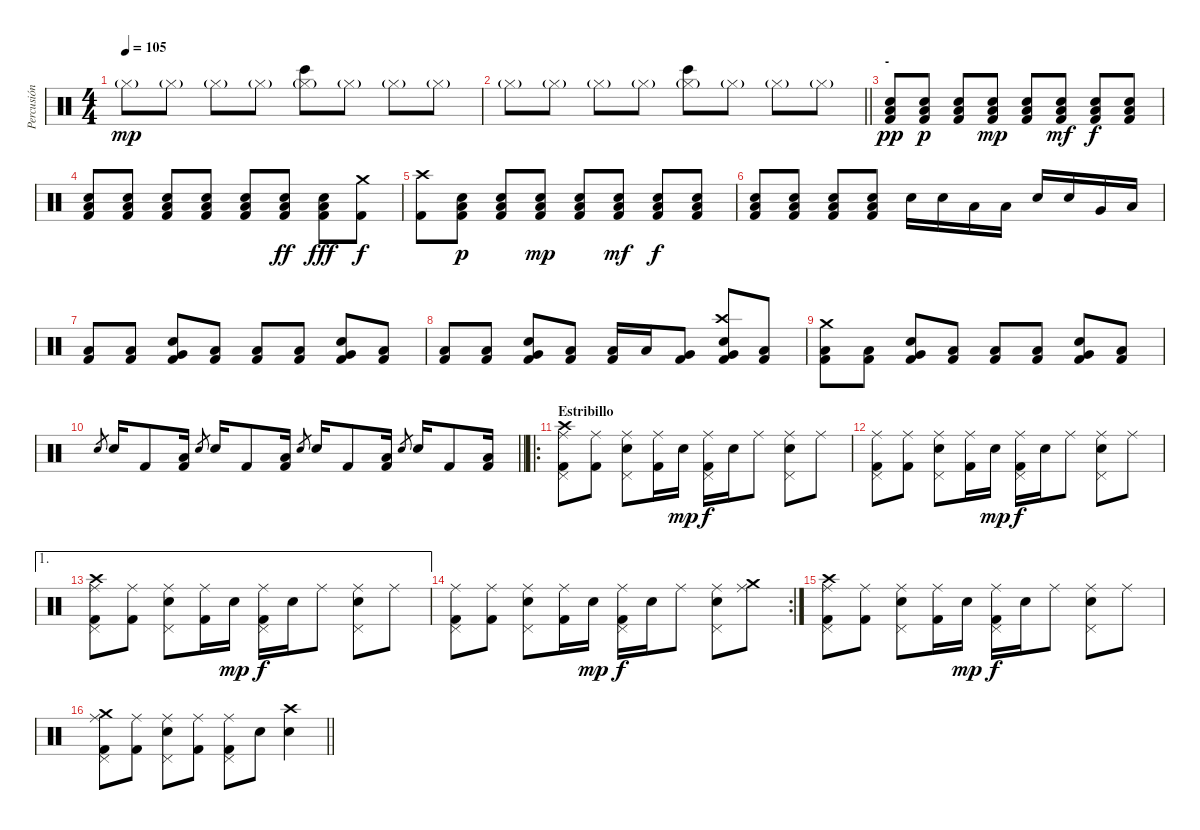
\track ("Percusión" "Percusión") {instrument percussion}
\staff {score}
\articulation defaults
\ts (4 4)
\tempo 105
\clef neutral
\ks c "Hi-Hat (closed)"{g}.8{dy mp} "Hi-Hat (closed)"{g}.8 "Hi-Hat (closed)"{g}.8 "Hi-Hat (closed)"{g}.8
("Hi-Hat (closed)"{g} "Bongo High (hit)").8 "Hi-Hat (closed)"{g}.8 "Hi-Hat (closed)"{g}.8 "Hi-Hat (closed)"{g}.8 |
\barLineRight lightlight "Hi-Hat (closed)"{g}.8 "Hi-Hat (closed)"{g}.8 "Hi-Hat (closed)"{g}.8 "Hi-Hat (closed)"{g}.8
("Hi-Hat (closed)"{g} "Bongo High (hit)").8 "Hi-Hat (closed)"{g}.8 "Hi-Hat (closed)"{g}.8 "Hi-Hat (closed)"{g}.8 |
\section ("" "-")
("Low Floor Tom (hit)" "Electric Snare (hit)" "Kick (hit) 2").8{dy pp} ("Low Floor Tom (hit)" "Electric Snare (hit)" "Kick (hit) 2").8{dy p} ("Low Floor Tom (hit)" "Electric Snare (hit)" "Kick (hit) 2").8 ("Low Floor Tom (hit)" "Electric Snare (hit)" "Kick (hit) 2").8{dy mp} ("Low Floor Tom (hit)" "Electric Snare (hit)" "Kick (hit) 2").8 ("Low Floor Tom (hit)" "Electric Snare (hit)" "Kick (hit) 2").8{dy mf} ("Low Floor Tom (hit)" "Electric Snare (hit)" "Kick (hit) 2").8{dy f} ("Low Floor Tom (hit)" "Electric Snare (hit)" "Kick (hit) 2").8 |
("Low Floor Tom (hit)" "Electric Snare (hit)" "Kick (hit) 2").8 ("Low Floor Tom (hit)" "Electric Snare (hit)" "Kick (hit) 2").8 ("Low Floor Tom (hit)" "Electric Snare (hit)" "Kick (hit) 2").8 ("Low Floor Tom (hit)" "Electric Snare (hit)" "Kick (hit) 2").8 ("Low Floor Tom (hit)" "Electric Snare (hit)" "Kick (hit) 2").8 ("Low Floor Tom (hit)" "Electric Snare (hit)" "Kick (hit) 2").8{dy ff} ("Low Floor Tom (hit)" "Electric Snare (hit)" "Kick (hit) 2").8{dy fff} ("Crash medium (hit)" "Kick (hit) 2").8{dy f} |
("Crash high (hit)" "Kick (hit) 2").8 ("Low Floor Tom (hit)" "Electric Snare (hit)" "Kick (hit) 2").8{dy p} ("Low Floor Tom (hit)" "Electric Snare (hit)" "Kick (hit) 2").8 ("Low Floor Tom (hit)" "Electric Snare (hit)" "Kick (hit) 2").8{dy mp} ("Low Floor Tom (hit)" "Electric Snare (hit)" "Kick (hit) 2").8 ("Low Floor Tom (hit)" "Electric Snare (hit)" "Kick (hit) 2").8{dy mf} ("Low Floor Tom (hit)" "Electric Snare (hit)" "Kick (hit) 2").8{dy f} ("Low Floor Tom (hit)" "Electric Snare (hit)" "Kick (hit) 2").8 |
("Low Floor Tom (hit)" "Electric Snare (hit)" "Kick (hit) 2").8 ("Low Floor Tom (hit)" "Electric Snare (hit)" "Kick (hit) 2").8 ("Low Floor Tom (hit)" "Electric Snare (hit)" "Kick (hit) 2").8 ("Low Floor Tom (hit)" "Electric Snare (hit)" "Kick (hit) 2").8 "Electric Snare (hit)".16 "Electric Snare (hit)".16 "Low Tom (hit)".16 "Low Tom (hit)".16 "Electric Snare (hit)".16 "Electric Snare (hit)".16 "Very Low Tom (hit)".16 "Low Floor Tom (hit)".16 |
("Low Floor Tom (hit)" "Kick (hit) 2").8 ("Low Floor Tom (hit)" "Kick (hit) 2").8 ("Very Low Tom (hit)" "Electric Snare (hit)" "Kick (hit) 2").8 ("Low Floor Tom (hit)" "Kick (hit) 2").8 ("Low Floor Tom (hit)" "Kick (hit) 2").8 ("Low Floor Tom (hit)" "Kick (hit) 2").8 ("Very Low Tom (hit)" "Electric Snare (hit)" "Kick (hit) 2").8 ("Low Floor Tom (hit)" "Kick (hit) 2").8 |
("Low Floor Tom (hit)" "Kick (hit) 2").8 ("Low Floor Tom (hit)" "Kick (hit) 2").8 ("Very Low Tom (hit)" "Electric Snare (hit)" "Kick (hit) 2").8 ("Low Floor Tom (hit)" "Kick (hit) 2").8 ("Low Floor Tom (hit)" "Kick (hit) 2").16 "Low Floor Tom (hit)".16 ("Very Low Tom (hit)" "Kick (hit) 2").8 ("Crash high (hit)" "Very Low Tom (hit)" "Electric Snare (hit)" "Kick (hit) 2").8 ("Low Floor Tom (hit)" "Kick (hit) 2").8 |
("Crash medium (hit)" "Low Floor Tom (hit)" "Kick (hit) 2").8 ("Low Floor Tom (hit)" "Kick (hit) 2").8 ("Very Low Tom (hit)" "Electric Snare (hit)" "Kick (hit) 2").8 ("Low Floor Tom (hit)" "Kick (hit) 2").8 ("Low Floor Tom (hit)" "Kick (hit) 2").8 ("Low Floor Tom (hit)" "Kick (hit) 2").8 ("Very Low Tom (hit)" "Electric Snare (hit)" "Kick (hit) 2").8 ("Low Floor Tom (hit)" "Kick (hit) 2").8 |
\barLineRight lightlight "Electric Snare (hit)".8{gr} "Electric Snare (hit)".16 "Kick (hit) 2".8
("Low Floor Tom (hit)" "Kick (hit) 2").16 "Electric Snare (hit)".8{gr} "Electric Snare (hit)".16 "Kick (hit) 2".8 ("Low Floor Tom (hit)" "Kick (hit) 2").16 "Electric Snare (hit)".8{gr} "Electric Snare (hit)".16 "Kick (hit) 2".8 ("Low Floor Tom (hit)" "Kick (hit) 2").16 "Electric Snare (hit)".8{gr} "Electric Snare (hit)".16 "Kick (hit) 2".8 ("Low Floor Tom (hit)" "Kick (hit) 2").16 |
\ro
\section ("" "Estribillo")
("Pedal Hi-Hat (hit)" "Crash high (hit)" "Ride (middle)" "Kick (hit) 2").8 ("Ride (middle)" "Kick (hit) 2").8 ("Pedal Hi-Hat (hit)" "Ride (middle)" "Electric Snare (hit)").8 ("Ride (middle)" "Kick (hit) 2").16 "Electric Snare (hit)".16{dy mp} ("Pedal Hi-Hat (hit)" "Ride (middle)" "Kick (hit) 2").16{dy f} "Electric Snare (hit)".16 "Ride (middle)".8 ("Pedal Hi-Hat (hit)" "Ride (middle)" "Electric Snare (hit)").8 "Ride (middle)".8 |
("Pedal Hi-Hat (hit)" "Ride (middle)" "Kick (hit) 2").8 ("Ride (middle)" "Kick (hit) 2").8 ("Pedal Hi-Hat (hit)" "Ride (middle)" "Electric Snare (hit)").8 ("Ride (middle)" "Kick (hit) 2").16 "Electric Snare (hit)".16{dy mp} ("Pedal Hi-Hat (hit)" "Ride (middle)" "Kick (hit) 2").16{dy f} "Electric Snare (hit)".16 "Ride (middle)".8 ("Pedal Hi-Hat (hit)" "Ride (middle)" "Electric Snare (hit)").8 "Ride (middle)".8 |
\ae 1
("Pedal Hi-Hat (hit)" "Crash high (hit)" "Ride (middle)" "Kick (hit) 2").8 ("Ride (middle)" "Kick (hit) 2").8 ("Pedal Hi-Hat (hit)" "Ride (middle)" "Electric Snare (hit)").8 ("Ride (middle)" "Kick (hit) 2").16 "Electric Snare (hit)".16{dy mp} ("Pedal Hi-Hat (hit)" "Ride (middle)" "Kick (hit) 2").16{dy f} "Electric Snare (hit)".16 "Ride (middle)".8 ("Pedal Hi-Hat (hit)" "Ride (middle)" "Electric Snare (hit)").8 "Ride (middle)".8 |
\rc 2
("Pedal Hi-Hat (hit)" "Ride (middle)" "Kick (hit) 2").8 ("Ride (middle)" "Kick (hit) 2").8 ("Pedal Hi-Hat (hit)" "Ride (middle)" "Electric Snare (hit)").8 ("Ride (middle)" "Kick (hit) 2").16 "Electric Snare (hit)".16{dy mp} ("Pedal Hi-Hat (hit)" "Ride (middle)" "Kick (hit) 2").16{dy f} "Electric Snare (hit)".16 "Ride (middle)".8 ("Pedal Hi-Hat (hit)" "Ride (middle)" "Electric Snare (hit)").8 ("Crash medium (hit)" "Ride (middle)").8 |
("Pedal Hi-Hat (hit)" "Crash high (hit)" "Ride (middle)" "Kick (hit) 2").8 ("Ride (middle)" "Kick (hit) 2").8 ("Pedal Hi-Hat (hit)" "Ride (middle)" "Electric Snare (hit)").8 ("Ride (middle)" "Kick (hit) 2").16 "Electric Snare (hit)".16{dy mp} ("Pedal Hi-Hat (hit)" "Ride (middle)" "Kick (hit) 2").16{dy f} "Electric Snare (hit)".16 "Ride (middle)".8 ("Pedal Hi-Hat (hit)" "Ride (middle)" "Electric Snare (hit)").8 "Ride (middle)".8 |
\barLineRight lightlight
("Pedal Hi-Hat (hit)" "Crash medium (hit)" "Ride (middle)" "Kick (hit) 2").8 ("Ride (middle)" "Kick (hit) 2").8 ("Pedal Hi-Hat (hit)" "Ride (middle)" "Electric Snare (hit)").8 ("Ride (middle)" "Kick (hit) 2").8 ("Pedal Hi-Hat (hit)" "Ride (middle)" "Kick (hit) 2").8 "Electric Snare (hit)".8 ("Crash high (hit)" "Electric Snare (hit)").4
